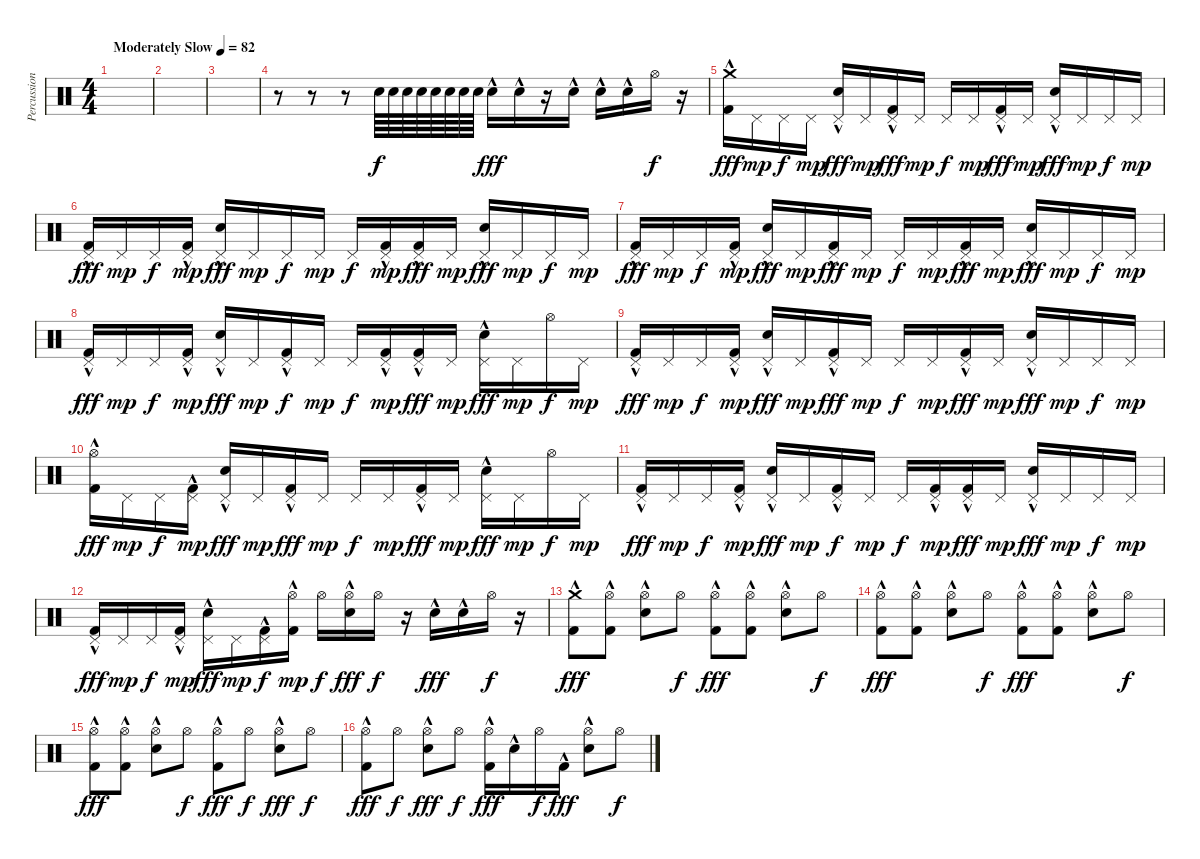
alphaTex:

\track ("Percussion" "Percussion") {instrument percussion}
\staff {score}
\articulation defaults
\ts (4 4)
\tempo (82 "Moderately Slow")
\clef neutral
\ks c
|
|
|
r.8 r.8 r.8 "Electric Snare (hit)".64 "Electric Snare (hit)".64 "Electric Snare (hit)".64 "Electric Snare (hit)".64 "Electric Snare (hit)".64 "Electric Snare (hit)".64 "Electric Snare (hit)".64 "Electric Snare (hit)".64 "Electric Snare (hit)"{hac}.16{dy fff} "Electric Snare (hit)"{hac}.16 r.16 "Electric Snare (hit)"{hac}.16 "Electric Snare (hit)"{hac}.16 "Electric Snare (hit)"{hac}.16 "Hi-Hat (open)".16{dy f} r.16 |
("Kick (hit) 2"{hac} "Crash medium (hit)").16{dy fff} "Pedal Hi-Hat (hit)".16{dy mp} "Pedal Hi-Hat (hit)".16{dy f} "Pedal Hi-Hat (hit)".16{dy mp} ("Electric Snare (hit)"{hac} "Pedal Hi-Hat (hit)").16{dy fff} "Pedal Hi-Hat (hit)".16{dy mp} ("Kick (hit) 2"{hac} "Pedal Hi-Hat (hit)").16{dy fff} "Pedal Hi-Hat (hit)".16{dy mp} "Pedal Hi-Hat (hit)".16{dy f} "Pedal Hi-Hat (hit)".16{dy mp} ("Kick (hit) 2"{hac} "Pedal Hi-Hat (hit)").16{dy fff} "Pedal Hi-Hat (hit)".16{dy mp} ("Electric Snare (hit)"{hac} "Pedal Hi-Hat (hit)").16{dy fff} "Pedal Hi-Hat (hit)".16{dy mp} "Pedal Hi-Hat (hit)".16{dy f} "Pedal Hi-Hat (hit)".16{dy mp} |
("Kick (hit) 2"{hac} "Pedal Hi-Hat (hit)").16{dy fff} "Pedal Hi-Hat (hit)".16{dy mp} "Pedal Hi-Hat (hit)".16{dy f} ("Kick (hit) 2"{hac} "Pedal Hi-Hat (hit)").16{dy mp} ("Electric Snare (hit)"{hac} "Pedal Hi-Hat (hit)").16{dy fff} "Pedal Hi-Hat (hit)".16{dy mp} "Pedal Hi-Hat (hit)".16{dy f} "Pedal Hi-Hat (hit)".16{dy mp} "Pedal Hi-Hat (hit)".16{dy f} ("Kick (hit) 2"{hac} "Pedal Hi-Hat (hit)").16{dy mp} ("Kick (hit) 2"{hac} "Pedal Hi-Hat (hit)").16{dy fff} "Pedal Hi-Hat (hit)".16{dy mp} ("Electric Snare (hit)"{hac} "Pedal Hi-Hat (hit)").16{dy fff} "Pedal Hi-Hat (hit)".16{dy mp} "Pedal Hi-Hat (hit)".16{dy f} "Pedal Hi-Hat (hit)".16{dy mp} |
("Kick (hit) 2"{hac} "Pedal Hi-Hat (hit)").16{dy fff} "Pedal Hi-Hat (hit)".16{dy mp} "Pedal Hi-Hat (hit)".16{dy f} ("Kick (hit) 2"{hac} "Pedal Hi-Hat (hit)").16{dy mp} ("Electric Snare (hit)"{hac} "Pedal Hi-Hat (hit)").16{dy fff} "Pedal Hi-Hat (hit)".16{dy mp} ("Kick (hit) 2"{hac} "Pedal Hi-Hat (hit)").16{dy fff} "Pedal Hi-Hat (hit)".16{dy mp} "Pedal Hi-Hat (hit)".16{dy f} "Pedal Hi-Hat (hit)".16{dy mp} ("Kick (hit) 2"{hac} "Pedal Hi-Hat (hit)").16{dy fff} "Pedal Hi-Hat (hit)".16{dy mp} ("Electric Snare (hit)"{hac} "Pedal Hi-Hat (hit)").16{dy fff} "Pedal Hi-Hat (hit)".16{dy mp} "Pedal Hi-Hat (hit)".16{dy f} "Pedal Hi-Hat (hit)".16{dy mp} |
("Kick (hit) 2"{hac} "Pedal Hi-Hat (hit)").16{dy fff} "Pedal Hi-Hat (hit)".16{dy mp} "Pedal Hi-Hat (hit)".16{dy f} ("Kick (hit) 2"{hac} "Pedal Hi-Hat (hit)").16{dy mp} ("Electric Snare (hit)"{hac} "Pedal Hi-Hat (hit)").16{dy fff} "Pedal Hi-Hat (hit)".16{dy mp} ("Kick (hit) 2"{hac} "Pedal Hi-Hat (hit)").16{dy f} "Pedal Hi-Hat (hit)".16{dy mp} "Pedal Hi-Hat (hit)".16{dy f} ("Kick (hit) 2"{hac} "Pedal Hi-Hat (hit)").16{dy mp} ("Kick (hit) 2"{hac} "Pedal Hi-Hat (hit)").16{dy fff} "Pedal Hi-Hat (hit)".16{dy mp} ("Electric Snare (hit)"{hac} "Pedal Hi-Hat (hit)").16{dy fff} "Pedal Hi-Hat (hit)".16{dy mp} "Hi-Hat (open)".16{dy f} "Pedal Hi-Hat (hit)".16{dy mp} |
("Kick (hit) 2"{hac} "Pedal Hi-Hat (hit)").16{dy fff} "Pedal Hi-Hat (hit)".16{dy mp} "Pedal Hi-Hat (hit)".16{dy f} ("Kick (hit) 2"{hac} "Pedal Hi-Hat (hit)").16{dy mp} ("Electric Snare (hit)"{hac} "Pedal Hi-Hat (hit)").16{dy fff} "Pedal Hi-Hat (hit)".16{dy mp} ("Kick (hit) 2"{hac} "Pedal Hi-Hat (hit)").16{dy fff} "Pedal Hi-Hat (hit)".16{dy mp} "Pedal Hi-Hat (hit)".16{dy f} "Pedal Hi-Hat (hit)".16{dy mp} ("Kick (hit) 2"{hac} "Pedal Hi-Hat (hit)").16{dy fff} "Pedal Hi-Hat (hit)".16{dy mp} ("Electric Snare (hit)"{hac} "Pedal Hi-Hat (hit)").16{dy fff} "Pedal Hi-Hat (hit)".16{dy mp} "Pedal Hi-Hat (hit)".16{dy f} "Pedal Hi-Hat (hit)".16{dy mp} |
("Kick (hit) 2"{hac} "Hi-Hat (open)").16{dy fff} "Pedal Hi-Hat (hit)".16{dy mp} "Pedal Hi-Hat (hit)".16{dy f} ("Kick (hit) 2"{hac} "Pedal Hi-Hat (hit)").16{dy mp} ("Electric Snare (hit)"{hac} "Pedal Hi-Hat (hit)").16{dy fff} "Pedal Hi-Hat (hit)".16{dy mp} ("Kick (hit) 2"{hac} "Pedal Hi-Hat (hit)").16{dy fff} "Pedal Hi-Hat (hit)".16{dy mp} "Pedal Hi-Hat (hit)".16{dy f} "Pedal Hi-Hat (hit)".16{dy mp} ("Kick (hit) 2"{hac} "Pedal Hi-Hat (hit)").16{dy fff} "Pedal Hi-Hat (hit)".16{dy mp} ("Electric Snare (hit)"{hac} "Pedal Hi-Hat (hit)").16{dy fff} "Pedal Hi-Hat (hit)".16{dy mp} "Hi-Hat (open)".16{dy f} "Pedal Hi-Hat (hit)".16{dy mp} |
("Kick (hit) 2"{hac} "Pedal Hi-Hat (hit)").16{dy fff} "Pedal Hi-Hat (hit)".16{dy mp} "Pedal Hi-Hat (hit)".16{dy f} ("Kick (hit) 2"{hac} "Pedal Hi-Hat (hit)").16{dy mp} ("Electric Snare (hit)"{hac} "Pedal Hi-Hat (hit)").16{dy fff} "Pedal Hi-Hat (hit)".16{dy mp} ("Kick (hit) 2"{hac} "Pedal Hi-Hat (hit)").16{dy f} "Pedal Hi-Hat (hit)".16{dy mp} "Pedal Hi-Hat (hit)".16{dy f} ("Kick (hit) 2"{hac} "Pedal Hi-Hat (hit)").16{dy mp} ("Kick (hit) 2"{hac} "Pedal Hi-Hat (hit)").16{dy fff} "Pedal Hi-Hat (hit)".16{dy mp} ("Electric Snare (hit)"{hac} "Pedal Hi-Hat (hit)").16{dy fff} "Pedal Hi-Hat (hit)".16{dy mp} "Pedal Hi-Hat (hit)".16{dy f} "Pedal Hi-Hat (hit)".16{dy mp} |
("Kick (hit) 2"{hac} "Pedal Hi-Hat (hit)").16{dy fff} "Pedal Hi-Hat (hit)".16{dy mp} "Pedal Hi-Hat (hit)".16{dy f} ("Kick (hit) 2"{hac} "Pedal Hi-Hat (hit)").16{dy mp} ("Electric Snare (hit)"{hac} "Pedal Hi-Hat (hit)").16{dy fff} "Pedal Hi-Hat (hit)".16{dy mp} ("Kick (hit) 2"{hac} "Pedal Hi-Hat (hit)").16{dy f} ("Kick (hit) 2"{hac} "Hi-Hat (open)").16{dy mp} "Hi-Hat (open)".16{dy f} ("Electric Snare (hit)"{hac} "Hi-Hat (open)").16{dy fff} "Hi-Hat (open)".16{dy f} r.16 "Electric Snare (hit)"{hac}.16{dy fff} "Electric Snare (hit)"{hac}.16 "Hi-Hat (open)".16{dy f} r.16 |
("Kick (hit) 2"{hac} "Crash medium (hit)").8{dy fff} ("Kick (hit) 2"{hac} "Hi-Hat (open)").8 ("Electric Snare (hit)"{hac} "Hi-Hat (open)").8 "Hi-Hat (open)".8{dy f} ("Kick (hit) 2"{hac} "Hi-Hat (open)").8{dy fff} ("Kick (hit) 2"{hac} "Hi-Hat (open)").8 ("Electric Snare (hit)"{hac} "Hi-Hat (open)").8 "Hi-Hat (open)".8{dy f} |
("Kick (hit) 2"{hac} "Hi-Hat (open)").8{dy fff} ("Kick (hit) 2"{hac} "Hi-Hat (open)").8 ("Electric Snare (hit)"{hac} "Hi-Hat (open)").8 "Hi-Hat (open)".8{dy f} ("Kick (hit) 2"{hac} "Hi-Hat (open)").8{dy fff} ("Kick (hit) 2"{hac} "Hi-Hat (open)").8 ("Electric Snare (hit)"{hac} "Hi-Hat (open)").8 "Hi-Hat (open)".8{dy f} |
("Kick (hit) 2"{hac} "Hi-Hat (open)").8{dy fff} ("Kick (hit) 2"{hac} "Hi-Hat (open)").8 ("Electric Snare (hit)"{hac} "Hi-Hat (open)").8 "Hi-Hat (open)".8{dy f} ("Kick (hit) 2"{hac} "Hi-Hat (open)").8{dy fff} "Hi-Hat (open)".8{dy f} ("Electric Snare (hit)"{hac} "Hi-Hat (open)").8{dy fff} "Hi-Hat (open)".8{dy f} |
("Kick (hit) 2"{hac} "Hi-Hat (open)").8{dy fff} "Hi-Hat (open)".8{dy f} ("Electric Snare (hit)"{hac} "Hi-Hat (open)").8{dy fff} "Hi-Hat (open)".8{dy f} ("Kick (hit) 2"{hac} "Hi-Hat (open)").16{dy fff} "Electric Snare (hit)"{hac}.16 "Hi-Hat (open)".16{dy f} "Kick (hit) 2"{hac}.16{dy fff} ("Electric Snare (hit)"{hac} "Hi-Hat (open)").8 "Hi-Hat (open)".8{dy f}
